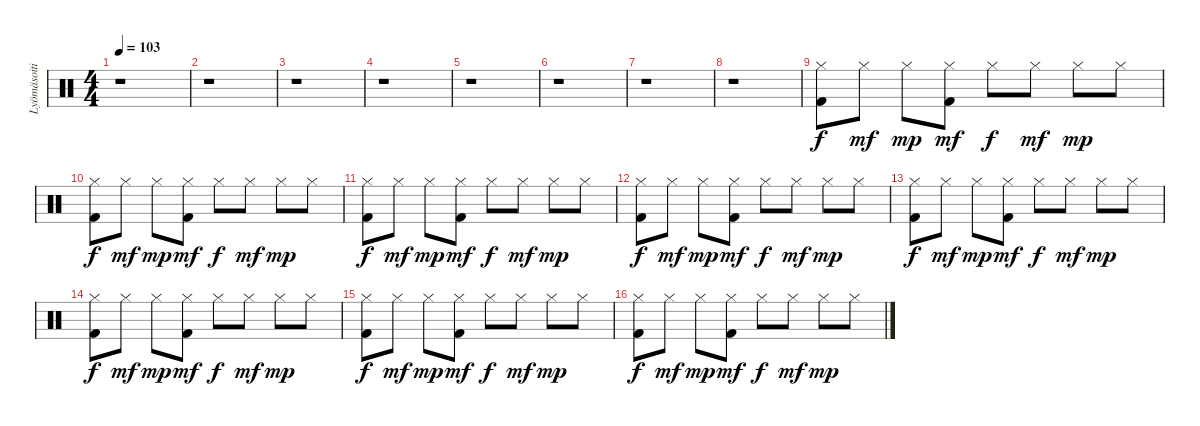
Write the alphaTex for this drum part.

\track ("Lyömäsoitin" "Lyömäsoiti") {instrument percussion}
\staff {score}
\articulation defaults
\ts (4 4)
\tempo 103
\clef neutral
\ks c
r.1{dy f} |
r.1 |
r.1 |
r.1 |
r.1 |
r.1 |
r.1 |
r.1 |
("Kick (hit) 2" "Hi-Hat (closed)").8 "Hi-Hat (closed)".8{dy mf} "Hi-Hat (closed)".8{dy mp} ("Kick (hit) 2" "Hi-Hat (closed)").8{dy mf} "Hi-Hat (closed)".8{dy f} "Hi-Hat (closed)".8{dy mf} "Hi-Hat (closed)".8{dy mp} "Hi-Hat (closed)".8 |
("Kick (hit) 2" "Hi-Hat (closed)").8{dy f} "Hi-Hat (closed)".8{dy mf} "Hi-Hat (closed)".8{dy mp} ("Kick (hit) 2" "Hi-Hat (closed)").8{dy mf} "Hi-Hat (closed)".8{dy f} "Hi-Hat (closed)".8{dy mf} "Hi-Hat (closed)".8{dy mp} "Hi-Hat (closed)".8 |
("Kick (hit) 2" "Hi-Hat (closed)").8{dy f} "Hi-Hat (closed)".8{dy mf} "Hi-Hat (closed)".8{dy mp} ("Kick (hit) 2" "Hi-Hat (closed)").8{dy mf} "Hi-Hat (closed)".8{dy f} "Hi-Hat (closed)".8{dy mf} "Hi-Hat (closed)".8{dy mp} "Hi-Hat (closed)".8 |
("Kick (hit) 2" "Hi-Hat (closed)").8{dy f} "Hi-Hat (closed)".8{dy mf} "Hi-Hat (closed)".8{dy mp} ("Kick (hit) 2" "Hi-Hat (closed)").8{dy mf} "Hi-Hat (closed)".8{dy f} "Hi-Hat (closed)".8{dy mf} "Hi-Hat (closed)".8{dy mp} "Hi-Hat (closed)".8 |
("Kick (hit) 2" "Hi-Hat (closed)").8{dy f} "Hi-Hat (closed)".8{dy mf} "Hi-Hat (closed)".8{dy mp} ("Kick (hit) 2" "Hi-Hat (closed)").8{dy mf} "Hi-Hat (closed)".8{dy f} "Hi-Hat (closed)".8{dy mf} "Hi-Hat (closed)".8{dy mp} "Hi-Hat (closed)".8 |
("Kick (hit) 2" "Hi-Hat (closed)").8{dy f} "Hi-Hat (closed)".8{dy mf} "Hi-Hat (closed)".8{dy mp} ("Kick (hit) 2" "Hi-Hat (closed)").8{dy mf} "Hi-Hat (closed)".8{dy f} "Hi-Hat (closed)".8{dy mf} "Hi-Hat (closed)".8{dy mp} "Hi-Hat (closed)".8 |
("Kick (hit) 2" "Hi-Hat (closed)").8{dy f} "Hi-Hat (closed)".8{dy mf} "Hi-Hat (closed)".8{dy mp} ("Kick (hit) 2" "Hi-Hat (closed)").8{dy mf} "Hi-Hat (closed)".8{dy f} "Hi-Hat (closed)".8{dy mf} "Hi-Hat (closed)".8{dy mp} "Hi-Hat (closed)".8 |
("Kick (hit) 2" "Hi-Hat (closed)").8{dy f} "Hi-Hat (closed)".8{dy mf} "Hi-Hat (closed)".8{dy mp} ("Kick (hit) 2" "Hi-Hat (closed)").8{dy mf} "Hi-Hat (closed)".8{dy f} "Hi-Hat (closed)".8{dy mf} "Hi-Hat (closed)".8{dy mp} "Hi-Hat (closed)".8
